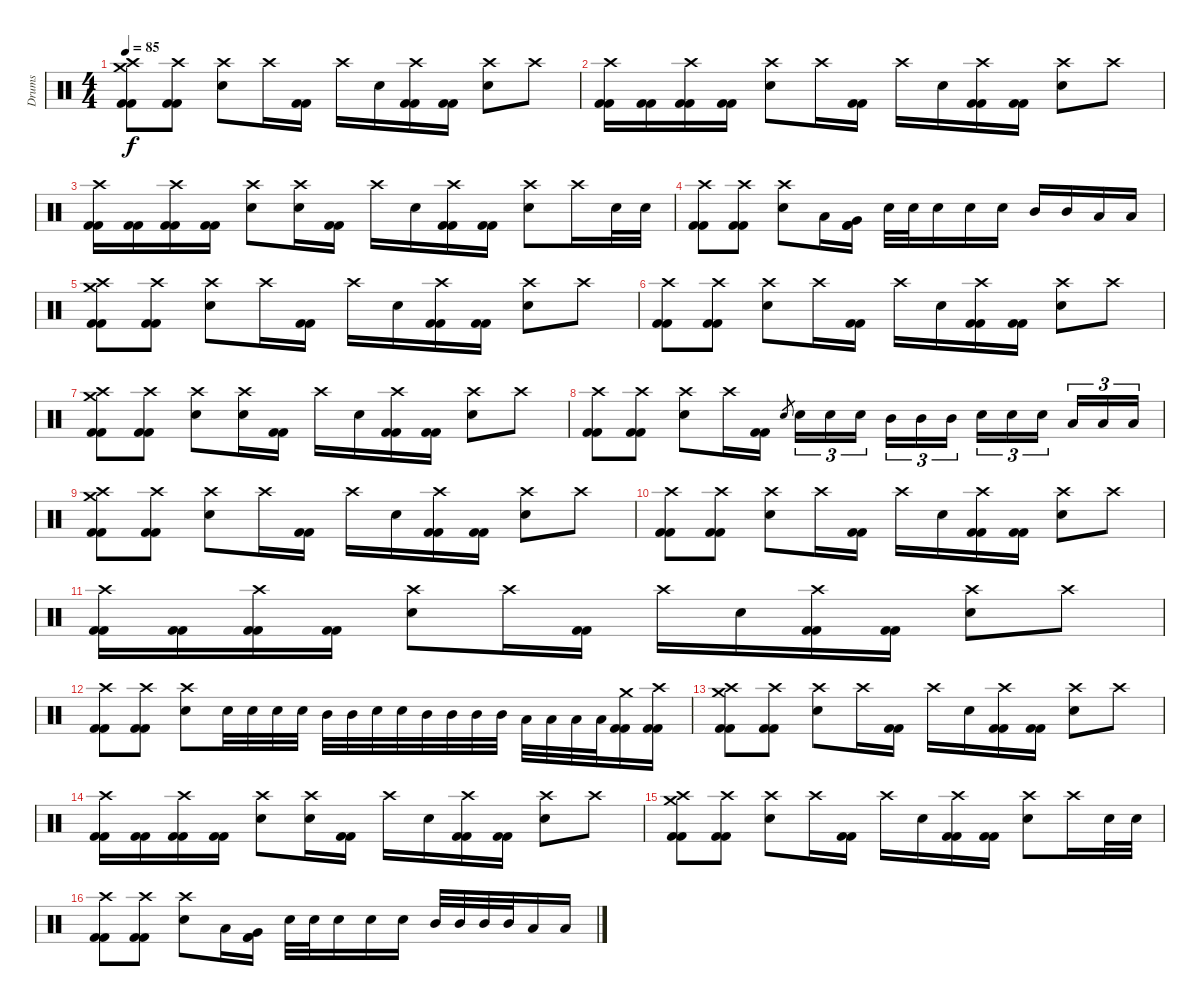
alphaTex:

\track ("Drums" "Drums") {instrument percussion}
\staff {score}
\articulation defaults
\ts (4 4)
\tempo 85
\clef neutral
\ks c
("Crash medium (hit)" "Crash high (hit)" "Kick (hit) 2" "Kick (hit) 2").8{dy f} ("Crash high (hit)" "Kick (hit) 2" "Kick (hit) 2").8 ("Crash high (hit)" "Electric Snare (hit)").8 "Crash high (hit)".16 ("Kick (hit) 2" "Kick (hit) 2").16 "Crash high (hit)".16 "Electric Snare (hit)".16 ("Crash high (hit)" "Kick (hit) 2" "Kick (hit) 2").16 ("Kick (hit) 2" "Kick (hit) 2").16 ("Crash high (hit)" "Electric Snare (hit)").8 "Crash high (hit)".8 |
("Crash high (hit)" "Kick (hit) 2" "Kick (hit) 2").16 ("Kick (hit) 2" "Kick (hit) 2").16 ("Crash high (hit)" "Kick (hit) 2" "Kick (hit) 2").16 ("Kick (hit) 2" "Kick (hit) 2").16 ("Crash high (hit)" "Electric Snare (hit)").8 "Crash high (hit)".16 ("Kick (hit) 2" "Kick (hit) 2").16 "Crash high (hit)".16 "Electric Snare (hit)".16 ("Crash high (hit)" "Kick (hit) 2" "Kick (hit) 2").16 ("Kick (hit) 2" "Kick (hit) 2").16 ("Crash high (hit)" "Electric Snare (hit)").8 "Crash high (hit)".8 |
("Crash high (hit)" "Kick (hit) 2" "Kick (hit) 2").16 ("Kick (hit) 2" "Kick (hit) 2").16 ("Crash high (hit)" "Kick (hit) 2" "Kick (hit) 2").16 ("Kick (hit) 2" "Kick (hit) 2").16 ("Crash high (hit)" "Electric Snare (hit)").8 ("Crash high (hit)" "Electric Snare (hit)").16 ("Kick (hit) 2" "Kick (hit) 2").16 "Crash high (hit)".16 "Electric Snare (hit)".16 ("Crash high (hit)" "Kick (hit) 2" "Kick (hit) 2").16 ("Kick (hit) 2" "Kick (hit) 2").16 ("Crash high (hit)" "Electric Snare (hit)").8 "Crash high (hit)".16 "Electric Snare (hit)".32 "Electric Snare (hit)".32 |
("Crash high (hit)" "Kick (hit) 2" "Kick (hit) 2").8 ("Crash high (hit)" "Kick (hit) 2" "Kick (hit) 2").8 ("Crash high (hit)" "Electric Snare (hit)").8 "Low Tom (hit)".16 ("Very Low Tom (hit)" "Kick (hit) 2" "Kick (hit) 2").16 "Electric Snare (hit)".32 "Electric Snare (hit)".32 "Electric Snare (hit)".16 "Electric Snare (hit)".16 "Electric Snare (hit)".16 "Mid Tom (hit)".16 "Mid Tom (hit)".16 "Low Tom (hit)".16 "Low Tom (hit)".16 |
("Crash medium (hit)" "Crash high (hit)" "Kick (hit) 2" "Kick (hit) 2").8 ("Crash high (hit)" "Kick (hit) 2" "Kick (hit) 2").8 ("Crash high (hit)" "Electric Snare (hit)").8 "Crash high (hit)".16 ("Kick (hit) 2" "Kick (hit) 2").16 "Crash high (hit)".16 "Electric Snare (hit)".16 ("Crash high (hit)" "Kick (hit) 2" "Kick (hit) 2").16 ("Kick (hit) 2" "Kick (hit) 2").16 ("Crash high (hit)" "Electric Snare (hit)").8 "Crash high (hit)".8 |
("Crash high (hit)" "Kick (hit) 2" "Kick (hit) 2").8 ("Crash high (hit)" "Kick (hit) 2" "Kick (hit) 2").8 ("Crash high (hit)" "Electric Snare (hit)").8 "Crash high (hit)".16 ("Kick (hit) 2" "Kick (hit) 2").16 "Crash high (hit)".16 "Electric Snare (hit)".16 ("Crash high (hit)" "Kick (hit) 2" "Kick (hit) 2").16 ("Kick (hit) 2" "Kick (hit) 2").16 ("Crash high (hit)" "Electric Snare (hit)").8 "Crash high (hit)".8 |
("Crash medium (hit)" "Crash high (hit)" "Kick (hit) 2" "Kick (hit) 2").8 ("Crash high (hit)" "Kick (hit) 2" "Kick (hit) 2").8 ("Crash high (hit)" "Electric Snare (hit)").8 ("Crash high (hit)" "Electric Snare (hit)").16 ("Kick (hit) 2" "Kick (hit) 2").16 "Crash high (hit)".16 "Electric Snare (hit)".16 ("Crash high (hit)" "Kick (hit) 2" "Kick (hit) 2").16 ("Kick (hit) 2" "Kick (hit) 2").16 ("Crash high (hit)" "Electric Snare (hit)").8 "Crash high (hit)".8 |
("Crash high (hit)" "Kick (hit) 2" "Kick (hit) 2").8 ("Crash high (hit)" "Kick (hit) 2" "Kick (hit) 2").8 ("Crash high (hit)" "Electric Snare (hit)").8 "Crash high (hit)".16 ("Kick (hit) 2" "Kick (hit) 2").16 "Electric Snare (hit)".8{gr} "Electric Snare (hit)".16{tu (3 2)} "Electric Snare (hit)".16{tu (3 2)} "Electric Snare (hit)".16{tu (3 2) beam splitsecondary} "Mid Tom (hit)".16{tu (3 2)} "Mid Tom (hit)".16{tu (3 2)} "Mid Tom (hit)".16{tu (3 2)} "Electric Snare (hit)".16{tu (3 2)} "Electric Snare (hit)".16{tu (3 2)} "Electric Snare (hit)".16{tu (3 2) beam splitsecondary} "Low Tom (hit)".16{tu (3 2)} "Low Tom (hit)".16{tu (3 2)} "Low Tom (hit)".16{tu (3 2)} |
("Crash medium (hit)" "Crash high (hit)" "Kick (hit) 2" "Kick (hit) 2").8 ("Crash high (hit)" "Kick (hit) 2" "Kick (hit) 2").8 ("Crash high (hit)" "Electric Snare (hit)").8 "Crash high (hit)".16 ("Kick (hit) 2" "Kick (hit) 2").16 "Crash high (hit)".16 "Electric Snare (hit)".16 ("Crash high (hit)" "Kick (hit) 2" "Kick (hit) 2").16 ("Kick (hit) 2" "Kick (hit) 2").16 ("Crash high (hit)" "Electric Snare (hit)").8 "Crash high (hit)".8 |
("Crash high (hit)" "Kick (hit) 2" "Kick (hit) 2").8 ("Crash high (hit)" "Kick (hit) 2" "Kick (hit) 2").8 ("Crash high (hit)" "Electric Snare (hit)").8 "Crash high (hit)".16 ("Kick (hit) 2" "Kick (hit) 2").16 "Crash high (hit)".16 "Electric Snare (hit)".16 ("Crash high (hit)" "Kick (hit) 2" "Kick (hit) 2").16 ("Kick (hit) 2" "Kick (hit) 2").16 ("Crash high (hit)" "Electric Snare (hit)").8 "Crash high (hit)".8 |
("Crash high (hit)" "Kick (hit) 2" "Kick (hit) 2").16 ("Kick (hit) 2" "Kick (hit) 2").16 ("Crash high (hit)" "Kick (hit) 2" "Kick (hit) 2").16 ("Kick (hit) 2" "Kick (hit) 2").16 ("Crash high (hit)" "Electric Snare (hit)").8 "Crash high (hit)".16 ("Kick (hit) 2" "Kick (hit) 2").16 "Crash high (hit)".16 "Electric Snare (hit)".16 ("Crash high (hit)" "Kick (hit) 2" "Kick (hit) 2").16 ("Kick (hit) 2" "Kick (hit) 2").16 ("Crash high (hit)" "Electric Snare (hit)").8 "Crash high (hit)".8 |
("Crash high (hit)" "Kick (hit) 2" "Kick (hit) 2").8 ("Crash high (hit)" "Kick (hit) 2" "Kick (hit) 2").8 ("Crash high (hit)" "Electric Snare (hit)").8 "Electric Snare (hit)".32 "Electric Snare (hit)".32 "Electric Snare (hit)".32 "Electric Snare (hit)".32 "Mid Tom (hit)".32 "Mid Tom (hit)".32 "Electric Snare (hit)".32 "Electric Snare (hit)".32 "Mid Tom (hit)".32 "Mid Tom (hit)".32 "Mid Tom (hit)".32 "Mid Tom (hit)".32 "Low Tom (hit)".32 "Low Tom (hit)".32 "Low Tom (hit)".32 "Low Tom (hit)".32 ("Crash medium (hit)" "Kick (hit) 2" "Kick (hit) 2").16 ("Crash high (hit)" "Kick (hit) 2" "Kick (hit) 2").16 |
("Crash medium (hit)" "Crash high (hit)" "Kick (hit) 2" "Kick (hit) 2").8 ("Crash high (hit)" "Kick (hit) 2" "Kick (hit) 2").8 ("Crash high (hit)" "Electric Snare (hit)").8 "Crash high (hit)".16 ("Kick (hit) 2" "Kick (hit) 2").16 "Crash high (hit)".16 "Electric Snare (hit)".16 ("Crash high (hit)" "Kick (hit) 2" "Kick (hit) 2").16 ("Kick (hit) 2" "Kick (hit) 2").16 ("Crash high (hit)" "Electric Snare (hit)").8 "Crash high (hit)".8 |
("Crash high (hit)" "Kick (hit) 2" "Kick (hit) 2").16 ("Kick (hit) 2" "Kick (hit) 2").16 ("Crash high (hit)" "Kick (hit) 2" "Kick (hit) 2").16 ("Kick (hit) 2" "Kick (hit) 2").16 ("Crash high (hit)" "Electric Snare (hit)").8 ("Crash high (hit)" "Electric Snare (hit)").16 ("Kick (hit) 2" "Kick (hit) 2").16 "Crash high (hit)".16 "Electric Snare (hit)".16 ("Crash high (hit)" "Kick (hit) 2" "Kick (hit) 2").16 ("Kick (hit) 2" "Kick (hit) 2").16 ("Crash high (hit)" "Electric Snare (hit)").8 "Crash high (hit)".8 |
("Crash medium (hit)" "Crash high (hit)" "Kick (hit) 2" "Kick (hit) 2").8 ("Crash high (hit)" "Kick (hit) 2" "Kick (hit) 2").8 ("Crash high (hit)" "Electric Snare (hit)").8 "Crash high (hit)".16 ("Kick (hit) 2" "Kick (hit) 2").16 "Crash high (hit)".16 "Electric Snare (hit)".16 ("Crash high (hit)" "Kick (hit) 2" "Kick (hit) 2").16 ("Kick (hit) 2" "Kick (hit) 2").16 ("Crash high (hit)" "Electric Snare (hit)").8 "Crash high (hit)".16 "Electric Snare (hit)".32 "Electric Snare (hit)".32 |
("Crash high (hit)" "Kick (hit) 2" "Kick (hit) 2").8 ("Crash high (hit)" "Kick (hit) 2" "Kick (hit) 2").8 ("Crash high (hit)" "Electric Snare (hit)").8 "Low Tom (hit)".16 ("Very Low Tom (hit)" "Kick (hit) 2" "Kick (hit) 2").16 "Electric Snare (hit)".32 "Electric Snare (hit)".32 "Electric Snare (hit)".16 "Electric Snare (hit)".16 "Electric Snare (hit)".16 "Mid Tom (hit)".32 "Mid Tom (hit)".32 "Mid Tom (hit)".32 "Mid Tom (hit)".32 "Low Tom (hit)".16 "Low Tom (hit)".16
